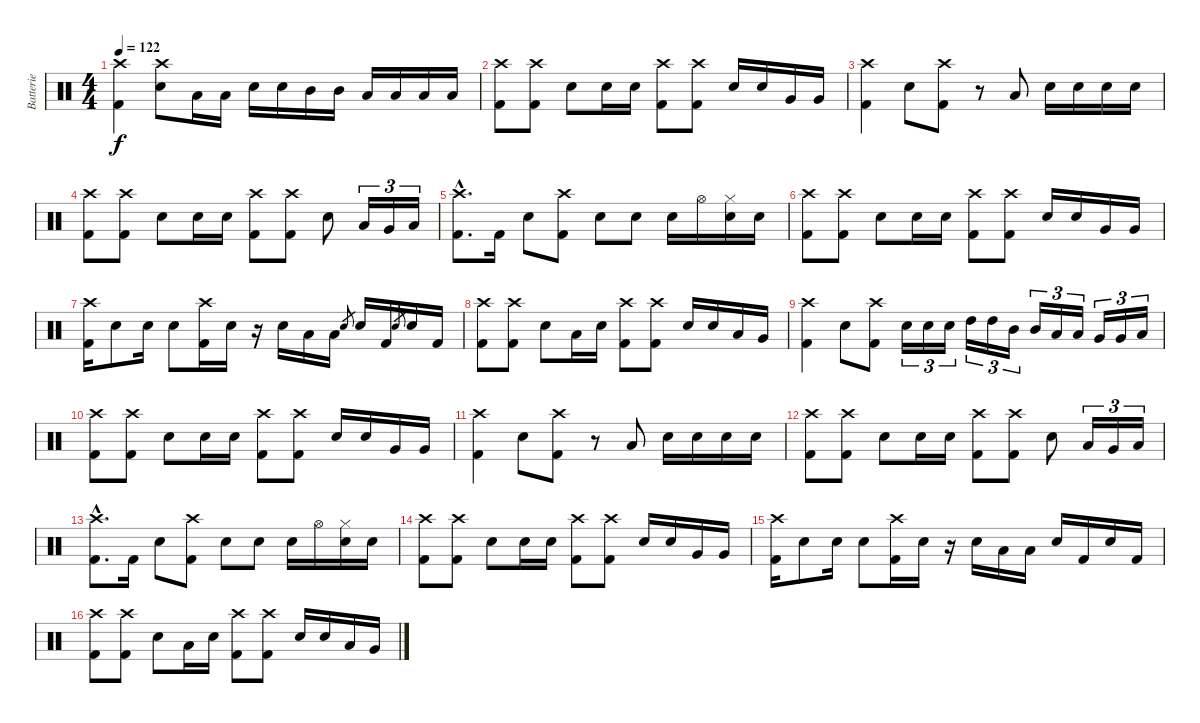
\track ("Batterie" "Batterie") {instrument percussion}
\staff {score}
\articulation defaults
\ts (4 4)
\tempo 122
\clef neutral
\ks c
("Crash high (hit)" "Kick (hit) 2").4{dy f} ("Crash high (hit)" "Snare (hit) 2").8 "Low Tom (hit)".16 "Low Tom (hit)".16 "Snare (hit) 2".16 "Snare (hit) 2".16 "Mid Tom (hit)".16 "Mid Tom (hit)".16 "Low Tom (hit)".16 "Low Tom (hit)".16 "Low Floor Tom (hit)".16 "Low Floor Tom (hit)".16 |
("Crash high (hit)" "Kick (hit) 2").8 ("Crash high (hit)" "Kick (hit) 2").8 "Snare (hit) 2".8 "Snare (hit) 2".16 "Snare (hit) 2".16 ("Crash high (hit)" "Kick (hit) 2").8 ("Crash high (hit)" "Kick (hit) 2").8 "Snare (hit) 2".16 "Snare (hit) 2".16 "Very Low Tom (hit)".16 "Very Low Tom (hit)".16 |
("Crash high (hit)" "Kick (hit) 2").4 "Snare (hit) 2".8 ("Crash high (hit)" "Kick (hit) 2").8 r.8 "Low Floor Tom (hit)".8 "Snare (hit) 2".16 "Snare (hit) 2".16 "Snare (hit) 2".16 "Snare (hit) 2".16 |
("Crash high (hit)" "Kick (hit) 2").8 ("Crash high (hit)" "Kick (hit) 2").8 "Snare (hit) 2".8 "Snare (hit) 2".16 "Snare (hit) 2".16 ("Crash high (hit)" "Kick (hit) 2").8 ("Crash high (hit)" "Kick (hit) 2").8 "Snare (hit) 2".8 "Low Tom (hit)".16{tu (3 2)} "Very Low Tom (hit)".16{tu (3 2)} "Low Floor Tom (hit)".16{tu (3 2)} |
("Crash high (hit)"{hac} "Kick (hit) 2"{hac}).8{d} "Kick (hit) 2".16 "Snare (hit) 2".8 ("Crash high (hit)" "Kick (hit) 2").8 "Snare (hit) 2".8 "Snare (hit) 2".8 "Snare (hit) 2".16 "Hi-Hat (open)".16 ("Hi-Hat (closed)" "Snare (hit) 2").16 "Snare (hit) 2".16 |
("Crash high (hit)" "Kick (hit) 2").8 ("Crash high (hit)" "Kick (hit) 2").8 "Snare (hit) 2".8 "Snare (hit) 2".16 "Snare (hit) 2".16 ("Crash high (hit)" "Kick (hit) 2").8 ("Crash high (hit)" "Kick (hit) 2").8 "Snare (hit) 2".16 "Snare (hit) 2".16 "Very Low Tom (hit)".16 "Very Low Tom (hit)".16 |
("Crash high (hit)" "Kick (hit) 2").16 "Snare (hit) 2".8 "Snare (hit) 2".16 "Snare (hit) 2".8 ("Crash high (hit)" "Kick (hit) 2").16 "Snare (hit) 2".16 r.16 "Snare (hit) 2".16 "Low Tom (hit)".16 "Low Floor Tom (hit)".16 "Snare (hit) 2".8{gr} "Snare (hit) 2".16 "Kick (hit) 2".16 "Snare (hit) 2".8{gr} "Snare (hit) 2".16 "Kick (hit) 2".16 |
("Crash high (hit)" "Kick (hit) 2").8 ("Crash high (hit)" "Kick (hit) 2").8 "Snare (hit) 2".8 "Low Floor Tom (hit)".16 "Snare (hit) 2".16 ("Crash high (hit)" "Kick (hit) 2").8 ("Crash high (hit)" "Kick (hit) 2").8 "Snare (hit) 2".16 "Snare (hit) 2".16 "Low Tom (hit)".16 "Very Low Tom (hit)".16 |
("Crash high (hit)" "Kick (hit) 2").4 "Snare (hit) 2".8 ("Crash high (hit)" "Kick (hit) 2").8 "Snare (hit) 2".16{tu (3 2)} "Snare (hit) 2".16{tu (3 2)} "Snare (hit) 2".16{tu (3 2)} "High Tom (hit)".16{tu (3 2)} "High Tom (hit)".16{tu (3 2)} "Mid Tom (hit)".16{tu (3 2)} "Mid Tom (hit)".16{tu (3 2)} "Low Tom (hit)".16{tu (3 2)} "Low Tom (hit)".16{tu (3 2)} "Very Low Tom (hit)".16{tu (3 2)} "Very Low Tom (hit)".16{tu (3 2)} "Low Floor Tom (hit)".16{tu (3 2)} |
("Crash high (hit)" "Kick (hit) 2").8 ("Crash high (hit)" "Kick (hit) 2").8 "Snare (hit) 2".8 "Snare (hit) 2".16 "Snare (hit) 2".16 ("Crash high (hit)" "Kick (hit) 2").8 ("Crash high (hit)" "Kick (hit) 2").8 "Snare (hit) 2".16 "Snare (hit) 2".16 "Very Low Tom (hit)".16 "Very Low Tom (hit)".16 |
("Crash high (hit)" "Kick (hit) 2").4 "Snare (hit) 2".8 ("Crash high (hit)" "Kick (hit) 2").8 r.8 "Low Floor Tom (hit)".8 "Snare (hit) 2".16 "Snare (hit) 2".16 "Snare (hit) 2".16 "Snare (hit) 2".16 |
("Crash high (hit)" "Kick (hit) 2").8 ("Crash high (hit)" "Kick (hit) 2").8 "Snare (hit) 2".8 "Snare (hit) 2".16 "Snare (hit) 2".16 ("Crash high (hit)" "Kick (hit) 2").8 ("Crash high (hit)" "Kick (hit) 2").8 "Snare (hit) 2".8 "Low Tom (hit)".16{tu (3 2)} "Very Low Tom (hit)".16{tu (3 2)} "Low Floor Tom (hit)".16{tu (3 2)} |
("Crash high (hit)"{hac} "Kick (hit) 2"{hac}).8{d} "Kick (hit) 2".16 "Snare (hit) 2".8 ("Crash high (hit)" "Kick (hit) 2").8 "Snare (hit) 2".8 "Snare (hit) 2".8 "Snare (hit) 2".16 "Hi-Hat (open)".16 ("Hi-Hat (closed)" "Snare (hit) 2").16 "Snare (hit) 2".16 |
("Crash high (hit)" "Kick (hit) 2").8 ("Crash high (hit)" "Kick (hit) 2").8 "Snare (hit) 2".8 "Snare (hit) 2".16 "Snare (hit) 2".16 ("Crash high (hit)" "Kick (hit) 2").8 ("Crash high (hit)" "Kick (hit) 2").8 "Snare (hit) 2".16 "Snare (hit) 2".16 "Very Low Tom (hit)".16 "Very Low Tom (hit)".16 |
("Crash high (hit)" "Kick (hit) 2").16 "Snare (hit) 2".8 "Snare (hit) 2".16 "Snare (hit) 2".8 ("Crash high (hit)" "Kick (hit) 2").16 "Snare (hit) 2".16 r.16 "Snare (hit) 2".16 "Low Tom (hit)".16 "Low Floor Tom (hit)".16 "Snare (hit) 2".16 "Kick (hit) 2".16 "Snare (hit) 2".16 "Kick (hit) 2".16 |
("Crash high (hit)" "Kick (hit) 2").8 ("Crash high (hit)" "Kick (hit) 2").8 "Snare (hit) 2".8 "Low Floor Tom (hit)".16 "Snare (hit) 2".16 ("Crash high (hit)" "Kick (hit) 2").8 ("Crash high (hit)" "Kick (hit) 2").8 "Snare (hit) 2".16 "Snare (hit) 2".16 "Low Tom (hit)".16 "Very Low Tom (hit)".16
